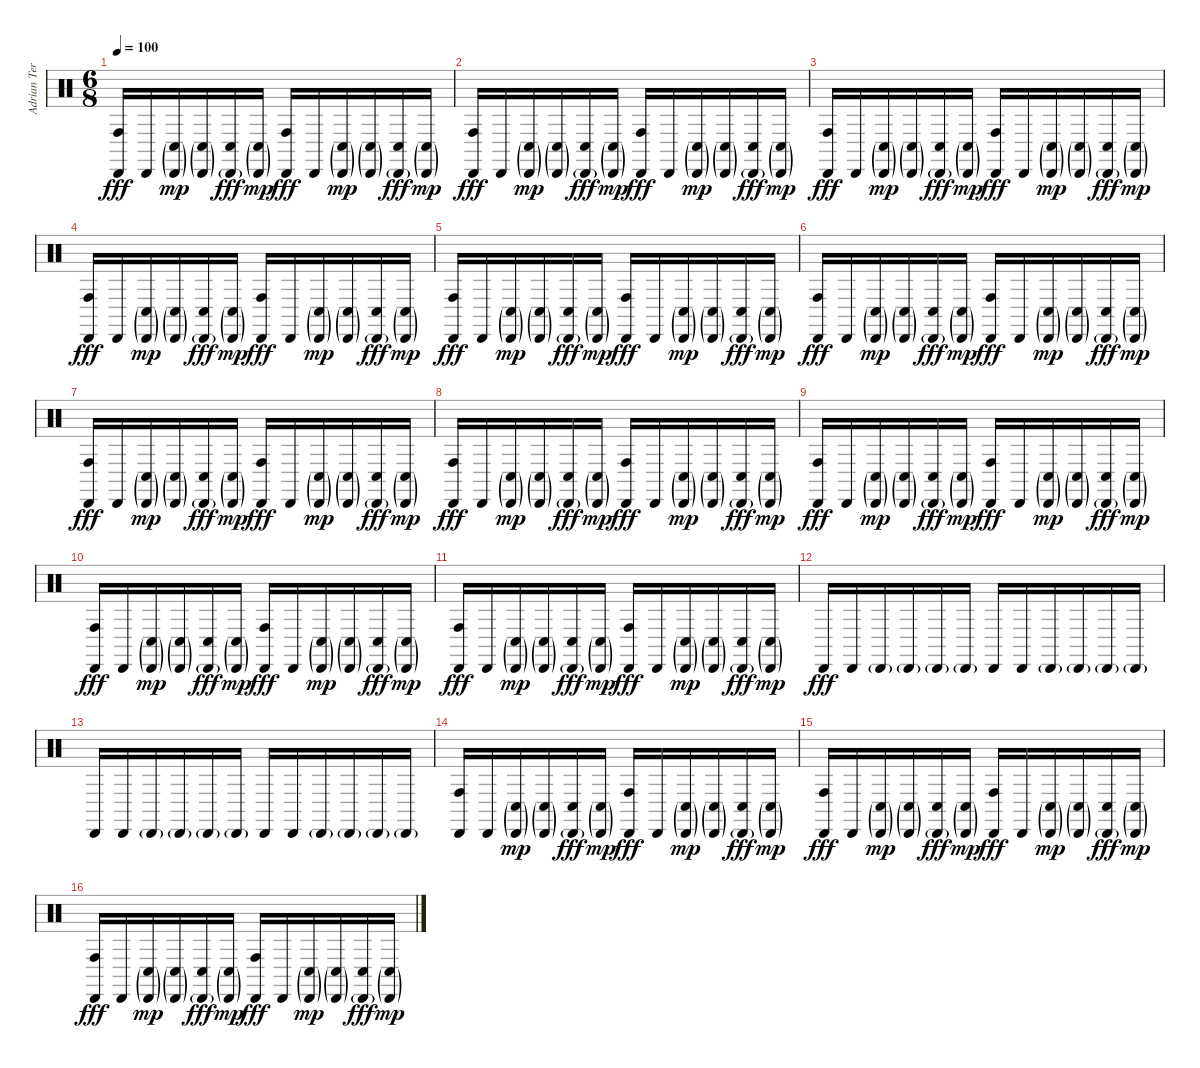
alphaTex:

\track ("Adrian Terrazas" "Adrian Ter") {instrument percussion}
\staff {score}
\articulation defaults
\ts (6 8)
\tempo 100
\clef neutral
\ks c
("Cabasa (hit)" "Conga high (hit)").16{dy fff} "Cabasa (hit)".16 ("Cabasa (hit)"{g} "Conga low (hit)"{g}).16{dy mp} ("Cabasa (hit)"{g} "Conga low (hit)"{g}).16 ("Cabasa (hit)"{g} "Conga low (hit)").16{dy fff} ("Cabasa (hit)"{g} "Conga low (hit)"{g}).16{dy mp} ("Cabasa (hit)" "Conga high (hit)").16{dy fff} "Cabasa (hit)".16 ("Cabasa (hit)"{g} "Conga low (hit)"{g}).16{dy mp} ("Cabasa (hit)"{g} "Conga low (hit)"{g}).16 ("Cabasa (hit)"{g} "Conga low (hit)").16{dy fff} ("Cabasa (hit)"{g} "Conga low (hit)"{g}).16{dy mp} |
("Cabasa (hit)" "Conga high (hit)").16{dy fff} "Cabasa (hit)".16 ("Cabasa (hit)"{g} "Conga low (hit)"{g}).16{dy mp} ("Cabasa (hit)"{g} "Conga low (hit)"{g}).16 ("Cabasa (hit)"{g} "Conga low (hit)").16{dy fff} ("Cabasa (hit)"{g} "Conga low (hit)"{g}).16{dy mp} ("Cabasa (hit)" "Conga high (hit)").16{dy fff} "Cabasa (hit)".16 ("Cabasa (hit)"{g} "Conga low (hit)"{g}).16{dy mp} ("Cabasa (hit)"{g} "Conga low (hit)"{g}).16 ("Cabasa (hit)"{g} "Conga low (hit)").16{dy fff} ("Cabasa (hit)"{g} "Conga low (hit)"{g}).16{dy mp} |
("Cabasa (hit)" "Conga high (hit)").16{dy fff} "Cabasa (hit)".16 ("Cabasa (hit)"{g} "Conga low (hit)"{g}).16{dy mp} ("Cabasa (hit)"{g} "Conga low (hit)"{g}).16 ("Cabasa (hit)"{g} "Conga low (hit)").16{dy fff} ("Cabasa (hit)"{g} "Conga low (hit)"{g}).16{dy mp} ("Cabasa (hit)" "Conga high (hit)").16{dy fff} "Cabasa (hit)".16 ("Cabasa (hit)"{g} "Conga low (hit)"{g}).16{dy mp} ("Cabasa (hit)"{g} "Conga low (hit)"{g}).16 ("Cabasa (hit)"{g} "Conga low (hit)").16{dy fff} ("Cabasa (hit)"{g} "Conga low (hit)"{g}).16{dy mp} |
("Cabasa (hit)" "Conga high (hit)").16{dy fff} "Cabasa (hit)".16 ("Cabasa (hit)"{g} "Conga low (hit)"{g}).16{dy mp} ("Cabasa (hit)"{g} "Conga low (hit)"{g}).16 ("Cabasa (hit)"{g} "Conga low (hit)").16{dy fff} ("Cabasa (hit)"{g} "Conga low (hit)"{g}).16{dy mp} ("Cabasa (hit)" "Conga high (hit)").16{dy fff} "Cabasa (hit)".16 ("Cabasa (hit)"{g} "Conga low (hit)"{g}).16{dy mp} ("Cabasa (hit)"{g} "Conga low (hit)"{g}).16 ("Cabasa (hit)"{g} "Conga low (hit)").16{dy fff} ("Cabasa (hit)"{g} "Conga low (hit)"{g}).16{dy mp} |
("Cabasa (hit)" "Conga high (hit)").16{dy fff} "Cabasa (hit)".16 ("Cabasa (hit)"{g} "Conga low (hit)"{g}).16{dy mp} ("Cabasa (hit)"{g} "Conga low (hit)"{g}).16 ("Cabasa (hit)"{g} "Conga low (hit)").16{dy fff} ("Cabasa (hit)"{g} "Conga low (hit)"{g}).16{dy mp} ("Cabasa (hit)" "Conga high (hit)").16{dy fff} "Cabasa (hit)".16 ("Cabasa (hit)"{g} "Conga low (hit)"{g}).16{dy mp} ("Cabasa (hit)"{g} "Conga low (hit)"{g}).16 ("Cabasa (hit)"{g} "Conga low (hit)").16{dy fff} ("Cabasa (hit)"{g} "Conga low (hit)"{g}).16{dy mp} |
("Cabasa (hit)" "Conga high (hit)").16{dy fff} "Cabasa (hit)".16 ("Cabasa (hit)"{g} "Conga low (hit)"{g}).16{dy mp} ("Cabasa (hit)"{g} "Conga low (hit)"{g}).16 ("Cabasa (hit)"{g} "Conga low (hit)").16{dy fff} ("Cabasa (hit)"{g} "Conga low (hit)"{g}).16{dy mp} ("Cabasa (hit)" "Conga high (hit)").16{dy fff} "Cabasa (hit)".16 ("Cabasa (hit)"{g} "Conga low (hit)"{g}).16{dy mp} ("Cabasa (hit)"{g} "Conga low (hit)"{g}).16 ("Cabasa (hit)"{g} "Conga low (hit)").16{dy fff} ("Cabasa (hit)"{g} "Conga low (hit)"{g}).16{dy mp} |
("Cabasa (hit)" "Conga high (hit)").16{dy fff} "Cabasa (hit)".16 ("Cabasa (hit)"{g} "Conga low (hit)"{g}).16{dy mp} ("Cabasa (hit)"{g} "Conga low (hit)"{g}).16 ("Cabasa (hit)"{g} "Conga low (hit)").16{dy fff} ("Cabasa (hit)"{g} "Conga low (hit)"{g}).16{dy mp} ("Cabasa (hit)" "Conga high (hit)").16{dy fff} "Cabasa (hit)".16 ("Cabasa (hit)"{g} "Conga low (hit)"{g}).16{dy mp} ("Cabasa (hit)"{g} "Conga low (hit)"{g}).16 ("Cabasa (hit)"{g} "Conga low (hit)").16{dy fff} ("Cabasa (hit)"{g} "Conga low (hit)"{g}).16{dy mp} |
("Cabasa (hit)" "Conga high (hit)").16{dy fff} "Cabasa (hit)".16 ("Cabasa (hit)"{g} "Conga low (hit)"{g}).16{dy mp} ("Cabasa (hit)"{g} "Conga low (hit)"{g}).16 ("Cabasa (hit)"{g} "Conga low (hit)").16{dy fff} ("Cabasa (hit)"{g} "Conga low (hit)"{g}).16{dy mp} ("Cabasa (hit)" "Conga high (hit)").16{dy fff} "Cabasa (hit)".16 ("Cabasa (hit)"{g} "Conga low (hit)"{g}).16{dy mp} ("Cabasa (hit)"{g} "Conga low (hit)"{g}).16 ("Cabasa (hit)"{g} "Conga low (hit)").16{dy fff} ("Cabasa (hit)"{g} "Conga low (hit)"{g}).16{dy mp} |
("Cabasa (hit)" "Conga high (hit)").16{dy fff} "Cabasa (hit)".16 ("Cabasa (hit)"{g} "Conga low (hit)"{g}).16{dy mp} ("Cabasa (hit)"{g} "Conga low (hit)"{g}).16 ("Cabasa (hit)"{g} "Conga low (hit)").16{dy fff} ("Cabasa (hit)"{g} "Conga low (hit)"{g}).16{dy mp} ("Cabasa (hit)" "Conga high (hit)").16{dy fff} "Cabasa (hit)".16 ("Cabasa (hit)"{g} "Conga low (hit)"{g}).16{dy mp} ("Cabasa (hit)"{g} "Conga low (hit)"{g}).16 ("Cabasa (hit)"{g} "Conga low (hit)").16{dy fff} ("Cabasa (hit)"{g} "Conga low (hit)"{g}).16{dy mp} |
("Cabasa (hit)" "Conga high (hit)").16{dy fff} "Cabasa (hit)".16 ("Cabasa (hit)"{g} "Conga low (hit)"{g}).16{dy mp} ("Cabasa (hit)"{g} "Conga low (hit)"{g}).16 ("Cabasa (hit)"{g} "Conga low (hit)").16{dy fff} ("Cabasa (hit)"{g} "Conga low (hit)"{g}).16{dy mp} ("Cabasa (hit)" "Conga high (hit)").16{dy fff} "Cabasa (hit)".16 ("Cabasa (hit)"{g} "Conga low (hit)"{g}).16{dy mp} ("Cabasa (hit)"{g} "Conga low (hit)"{g}).16 ("Cabasa (hit)"{g} "Conga low (hit)").16{dy fff} ("Cabasa (hit)"{g} "Conga low (hit)"{g}).16{dy mp} |
("Cabasa (hit)" "Conga high (hit)").16{dy fff} "Cabasa (hit)".16 ("Cabasa (hit)"{g} "Conga low (hit)"{g}).16{dy mp} ("Cabasa (hit)"{g} "Conga low (hit)"{g}).16 ("Cabasa (hit)"{g} "Conga low (hit)").16{dy fff} ("Cabasa (hit)"{g} "Conga low (hit)"{g}).16{dy mp} ("Cabasa (hit)" "Conga high (hit)").16{dy fff} "Cabasa (hit)".16 ("Cabasa (hit)"{g} "Conga low (hit)"{g}).16{dy mp} ("Cabasa (hit)"{g} "Conga low (hit)"{g}).16 ("Cabasa (hit)"{g} "Conga low (hit)").16{dy fff} ("Cabasa (hit)"{g} "Conga low (hit)"{g}).16{dy mp} |
"Cabasa (hit)".16{dy fff} "Cabasa (hit)".16 "Cabasa (hit)"{g}.16 "Cabasa (hit)"{g}.16 "Cabasa (hit)"{g}.16 "Cabasa (hit)"{g}.16 "Cabasa (hit)".16 "Cabasa (hit)".16 "Cabasa (hit)"{g}.16 "Cabasa (hit)"{g}.16 "Cabasa (hit)"{g}.16 "Cabasa (hit)"{g}.16 |
"Cabasa (hit)".16 "Cabasa (hit)".16 "Cabasa (hit)"{g}.16 "Cabasa (hit)"{g}.16 "Cabasa (hit)"{g}.16 "Cabasa (hit)"{g}.16 "Cabasa (hit)".16 "Cabasa (hit)".16 "Cabasa (hit)"{g}.16 "Cabasa (hit)"{g}.16 "Cabasa (hit)"{g}.16 "Cabasa (hit)"{g}.16 |
("Cabasa (hit)" "Conga high (hit)").16 "Cabasa (hit)".16 ("Cabasa (hit)"{g} "Conga low (hit)"{g}).16{dy mp} ("Cabasa (hit)"{g} "Conga low (hit)"{g}).16 ("Cabasa (hit)"{g} "Conga low (hit)").16{dy fff} ("Cabasa (hit)"{g} "Conga low (hit)"{g}).16{dy mp} ("Cabasa (hit)" "Conga high (hit)").16{dy fff} "Cabasa (hit)".16 ("Cabasa (hit)"{g} "Conga low (hit)"{g}).16{dy mp} ("Cabasa (hit)"{g} "Conga low (hit)"{g}).16 ("Cabasa (hit)"{g} "Conga low (hit)").16{dy fff} ("Cabasa (hit)"{g} "Conga low (hit)"{g}).16{dy mp} |
("Cabasa (hit)" "Conga high (hit)").16{dy fff} "Cabasa (hit)".16 ("Cabasa (hit)"{g} "Conga low (hit)"{g}).16{dy mp} ("Cabasa (hit)"{g} "Conga low (hit)"{g}).16 ("Cabasa (hit)"{g} "Conga low (hit)").16{dy fff} ("Cabasa (hit)"{g} "Conga low (hit)"{g}).16{dy mp} ("Cabasa (hit)" "Conga high (hit)").16{dy fff} "Cabasa (hit)".16 ("Cabasa (hit)"{g} "Conga low (hit)"{g}).16{dy mp} ("Cabasa (hit)"{g} "Conga low (hit)"{g}).16 ("Cabasa (hit)"{g} "Conga low (hit)").16{dy fff} ("Cabasa (hit)"{g} "Conga low (hit)"{g}).16{dy mp} |
("Cabasa (hit)" "Conga high (hit)").16{dy fff} "Cabasa (hit)".16 ("Cabasa (hit)"{g} "Conga low (hit)"{g}).16{dy mp} ("Cabasa (hit)"{g} "Conga low (hit)"{g}).16 ("Cabasa (hit)"{g} "Conga low (hit)").16{dy fff} ("Cabasa (hit)"{g} "Conga low (hit)"{g}).16{dy mp} ("Cabasa (hit)" "Conga high (hit)").16{dy fff} "Cabasa (hit)".16 ("Cabasa (hit)"{g} "Conga low (hit)"{g}).16{dy mp} ("Cabasa (hit)"{g} "Conga low (hit)"{g}).16 ("Cabasa (hit)"{g} "Conga low (hit)").16{dy fff} ("Cabasa (hit)"{g} "Conga low (hit)"{g}).16{dy mp}
